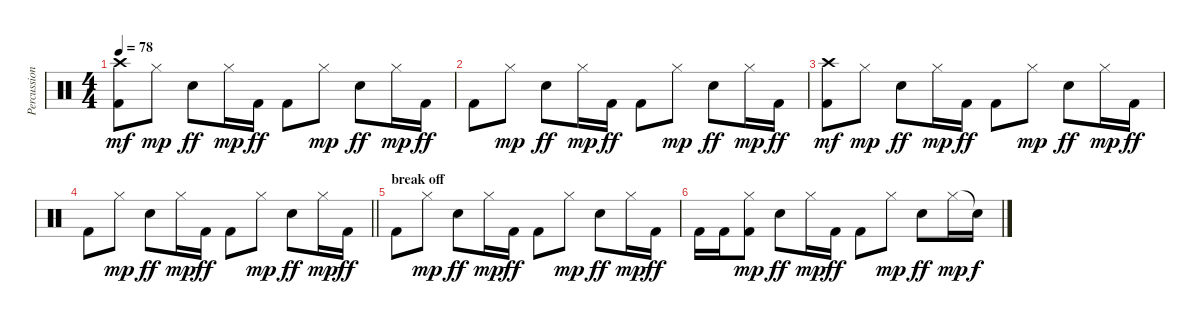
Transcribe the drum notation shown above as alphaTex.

\track ("Percussion" "Percussion") {instrument percussion}
\staff {score}
\articulation defaults
\ts (4 4)
\tempo 78
\clef neutral
\ks c
("Kick (hit) 2" "Crash high (hit)").8{dy mf} "Hi-Hat (closed)".8{dy mp} "Snare (hit) 2".8{dy ff} "Hi-Hat (closed)".16{dy mp} "Kick (hit) 2".16{dy ff} "Kick (hit) 2".8 "Hi-Hat (closed)".8{dy mp} "Snare (hit) 2".8{dy ff} "Hi-Hat (closed)".16{dy mp} "Kick (hit) 2".16{dy ff} |
"Kick (hit) 2".8 "Hi-Hat (closed)".8{dy mp} "Snare (hit) 2".8{dy ff} "Hi-Hat (closed)".16{dy mp} "Kick (hit) 2".16{dy ff} "Kick (hit) 2".8 "Hi-Hat (closed)".8{dy mp} "Snare (hit) 2".8{dy ff} "Hi-Hat (closed)".16{dy mp} "Kick (hit) 2".16{dy ff} |
("Kick (hit) 2" "Crash high (hit)").8{dy mf} "Hi-Hat (closed)".8{dy mp} "Snare (hit) 2".8{dy ff} "Hi-Hat (closed)".16{dy mp} "Kick (hit) 2".16{dy ff} "Kick (hit) 2".8 "Hi-Hat (closed)".8{dy mp} "Snare (hit) 2".8{dy ff} "Hi-Hat (closed)".16{dy mp} "Kick (hit) 2".16{dy ff} |
\barLineRight lightlight "Kick (hit) 2".8 "Hi-Hat (closed)".8{dy mp} "Snare (hit) 2".8{dy ff} "Hi-Hat (closed)".16{dy mp} "Kick (hit) 2".16{dy ff} "Kick (hit) 2".8 "Hi-Hat (closed)".8{dy mp} "Snare (hit) 2".8{dy ff} "Hi-Hat (closed)".16{dy mp} "Kick (hit) 2".16{dy ff}
|
\section ("" "break off")
"Kick (hit) 2".8 "Hi-Hat (closed)".8{dy mp} "Snare (hit) 2".8{dy ff} "Hi-Hat (closed)".16{dy mp} "Kick (hit) 2".16{dy ff} "Kick (hit) 2".8 "Hi-Hat (closed)".8{dy mp} "Snare (hit) 2".8{dy ff} "Hi-Hat (closed)".16{dy mp} "Kick (hit) 2".16{dy ff} |
"Kick (hit) 2".16 "Kick (hit) 2".16 ("Kick (hit) 2" "Hi-Hat (closed)").8{dy mp} "Snare (hit) 2".8{dy ff} "Hi-Hat (closed)".16{dy mp} "Kick (hit) 2".16{dy ff} "Kick (hit) 2".8 "Hi-Hat (closed)".8{dy mp} "Snare (hit) 2".8{dy ff} "Hi-Hat (closed)".16{dy mp} "Snare (hit)"{t}.16{dy f}
